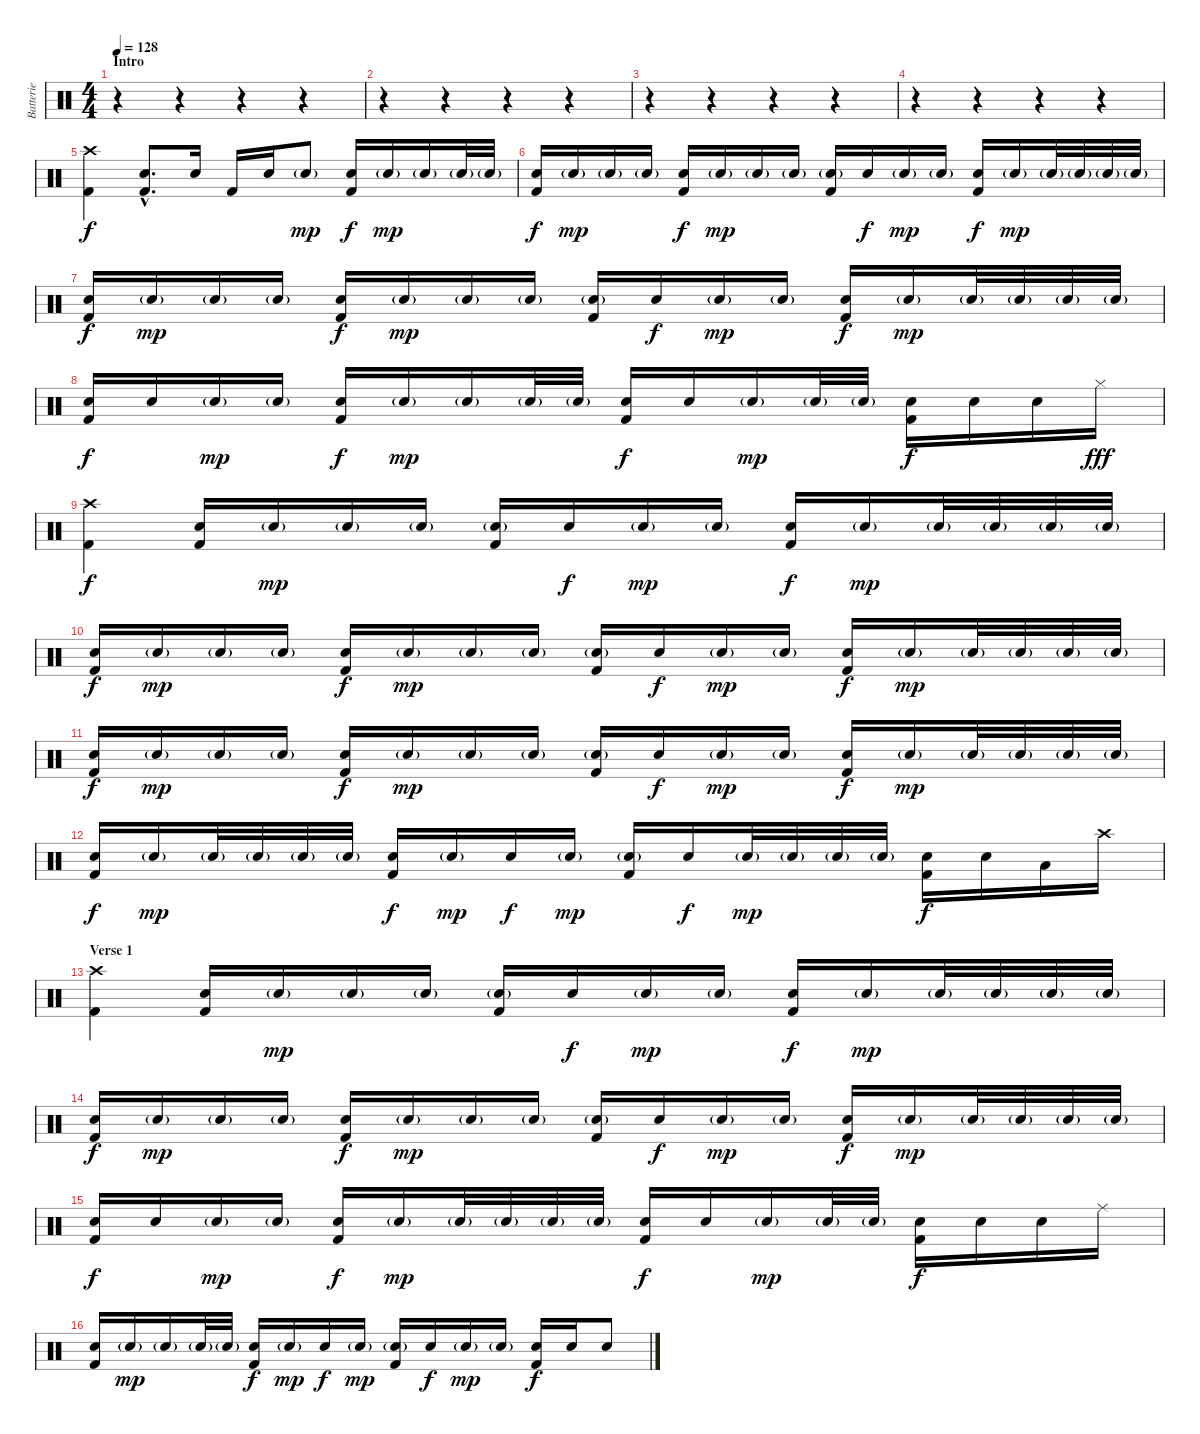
\track ("Batterie" "Batterie") {instrument percussion}
\staff {score}
\articulation defaults
\ts (4 4)
\section ("" "Intro")
\tempo 128
\clef neutral
\ks c
r.4{dy f} r.4 r.4 r.4 |
r.4 r.4 r.4 r.4 |
r.4 r.4 r.4 r.4 |
r.4 r.4 r.4 r.4 |
("Crash high (hit)" "Kick (hit) 2").4 ("Electric Snare (hit)"{hac} "Kick (hit) 2"{hac}).8{d} "Electric Snare (hit)".16 "Kick (hit) 2".16 "Electric Snare (hit)".16 "Electric Snare (hit)"{g}.8{dy mp} ("Electric Snare (hit)" "Kick (hit) 2").16{dy f} "Electric Snare (hit)"{g}.16{dy mp} "Electric Snare (hit)"{g}.16 "Electric Snare (hit)"{g}.32 "Electric Snare (hit)"{g}.32 |
("Electric Snare (hit)" "Kick (hit) 2").16{dy f} "Electric Snare (hit)"{g}.16{dy mp} "Electric Snare (hit)"{g}.16 "Electric Snare (hit)"{g}.16 ("Electric Snare (hit)" "Kick (hit) 2").16{dy f} "Electric Snare (hit)"{g}.16{dy mp} "Electric Snare (hit)"{g}.16 "Electric Snare (hit)"{g}.16 ("Electric Snare (hit)"{g} "Kick (hit) 2").16 "Electric Snare (hit)".16{dy f} "Electric Snare (hit)"{g}.16{dy mp} "Electric Snare (hit)"{g}.16 ("Electric Snare (hit)" "Kick (hit) 2").16{dy f} "Electric Snare (hit)"{g}.16{dy mp} "Electric Snare (hit)"{g}.32 "Electric Snare (hit)"{g}.32 "Electric Snare (hit)"{g}.32 "Electric Snare (hit)"{g}.32 |
("Electric Snare (hit)" "Kick (hit) 2").16{dy f} "Electric Snare (hit)"{g}.16{dy mp} "Electric Snare (hit)"{g}.16 "Electric Snare (hit)"{g}.16 ("Electric Snare (hit)" "Kick (hit) 2").16{dy f} "Electric Snare (hit)"{g}.16{dy mp} "Electric Snare (hit)"{g}.16 "Electric Snare (hit)"{g}.16 ("Electric Snare (hit)"{g} "Kick (hit) 2").16 "Electric Snare (hit)".16{dy f} "Electric Snare (hit)"{g}.16{dy mp} "Electric Snare (hit)"{g}.16 ("Electric Snare (hit)" "Kick (hit) 2").16{dy f} "Electric Snare (hit)"{g}.16{dy mp} "Electric Snare (hit)"{g}.32 "Electric Snare (hit)"{g}.32 "Electric Snare (hit)"{g}.32 "Electric Snare (hit)"{g}.32 |
("Electric Snare (hit)" "Kick (hit) 2").16{dy f} "Electric Snare (hit)".16 "Electric Snare (hit)"{g}.16{dy mp} "Electric Snare (hit)"{g}.16 ("Electric Snare (hit)" "Kick (hit) 2").16{dy f} "Electric Snare (hit)"{g}.16{dy mp} "Electric Snare (hit)"{g}.16 "Electric Snare (hit)"{g}.32 "Electric Snare (hit)"{g}.32 ("Electric Snare (hit)" "Kick (hit) 2").16{dy f} "Electric Snare (hit)".16 "Electric Snare (hit)"{g}.16{dy mp} "Electric Snare (hit)"{g}.32 "Electric Snare (hit)"{g}.32 ("Electric Snare (hit)" "Kick (hit) 2").16{dy f} "Electric Snare (hit)".16 "Electric Snare (hit)".16 "Hi-Hat (closed)".16{dy fff} |
("Crash high (hit)" "Kick (hit) 2").4{dy f} ("Electric Snare (hit)" "Kick (hit) 2").16 "Electric Snare (hit)"{g}.16{dy mp} "Electric Snare (hit)"{g}.16 "Electric Snare (hit)"{g}.16 ("Electric Snare (hit)"{g} "Kick (hit) 2").16 "Electric Snare (hit)".16{dy f} "Electric Snare (hit)"{g}.16{dy mp} "Electric Snare (hit)"{g}.16 ("Electric Snare (hit)" "Kick (hit) 2").16{dy f} "Electric Snare (hit)"{g}.16{dy mp} "Electric Snare (hit)"{g}.32 "Electric Snare (hit)"{g}.32 "Electric Snare (hit)"{g}.32 "Electric Snare (hit)"{g}.32 |
("Electric Snare (hit)" "Kick (hit) 2").16{dy f} "Electric Snare (hit)"{g}.16{dy mp} "Electric Snare (hit)"{g}.16 "Electric Snare (hit)"{g}.16 ("Electric Snare (hit)" "Kick (hit) 2").16{dy f} "Electric Snare (hit)"{g}.16{dy mp} "Electric Snare (hit)"{g}.16 "Electric Snare (hit)"{g}.16 ("Electric Snare (hit)"{g} "Kick (hit) 2").16 "Electric Snare (hit)".16{dy f} "Electric Snare (hit)"{g}.16{dy mp} "Electric Snare (hit)"{g}.16 ("Electric Snare (hit)" "Kick (hit) 2").16{dy f} "Electric Snare (hit)"{g}.16{dy mp} "Electric Snare (hit)"{g}.32 "Electric Snare (hit)"{g}.32 "Electric Snare (hit)"{g}.32 "Electric Snare (hit)"{g}.32 |
("Electric Snare (hit)" "Kick (hit) 2").16{dy f} "Electric Snare (hit)"{g}.16{dy mp} "Electric Snare (hit)"{g}.16 "Electric Snare (hit)"{g}.16 ("Electric Snare (hit)" "Kick (hit) 2").16{dy f} "Electric Snare (hit)"{g}.16{dy mp} "Electric Snare (hit)"{g}.16 "Electric Snare (hit)"{g}.16 ("Electric Snare (hit)"{g} "Kick (hit) 2").16 "Electric Snare (hit)".16{dy f} "Electric Snare (hit)"{g}.16{dy mp} "Electric Snare (hit)"{g}.16 ("Electric Snare (hit)" "Kick (hit) 2").16{dy f} "Electric Snare (hit)"{g}.16{dy mp} "Electric Snare (hit)"{g}.32 "Electric Snare (hit)"{g}.32 "Electric Snare (hit)"{g}.32 "Electric Snare (hit)"{g}.32 |
("Electric Snare (hit)" "Kick (hit) 2").16{dy f} "Electric Snare (hit)"{g}.16{dy mp} "Electric Snare (hit)"{g}.32 "Electric Snare (hit)"{g}.32 "Electric Snare (hit)"{g}.32 "Electric Snare (hit)"{g}.32 ("Electric Snare (hit)" "Kick (hit) 2").16{dy f} "Electric Snare (hit)"{g}.16{dy mp} "Electric Snare (hit)".16{dy f} "Electric Snare (hit)"{g}.16{dy mp} ("Electric Snare (hit)"{g} "Kick (hit) 2").16 "Electric Snare (hit)".16{dy f} "Electric Snare (hit)"{g}.32{dy mp} "Electric Snare (hit)"{g}.32 "Electric Snare (hit)"{g}.32 "Electric Snare (hit)"{g}.32 ("Electric Snare (hit)" "Kick (hit) 2").16{dy f} "Electric Snare (hit)".16 "Low Tom (hit)".16 "Crash high (hit)".16 |
\section ("" "Verse 1")
("Crash high (hit)" "Kick (hit) 2").4 ("Electric Snare (hit)" "Kick (hit) 2").16 "Electric Snare (hit)"{g}.16{dy mp} "Electric Snare (hit)"{g}.16 "Electric Snare (hit)"{g}.16 ("Electric Snare (hit)"{g} "Kick (hit) 2").16 "Electric Snare (hit)".16{dy f} "Electric Snare (hit)"{g}.16{dy mp} "Electric Snare (hit)"{g}.16 ("Electric Snare (hit)" "Kick (hit) 2").16{dy f} "Electric Snare (hit)"{g}.16{dy mp} "Electric Snare (hit)"{g}.32 "Electric Snare (hit)"{g}.32 "Electric Snare (hit)"{g}.32 "Electric Snare (hit)"{g}.32 |
("Electric Snare (hit)" "Kick (hit) 2").16{dy f} "Electric Snare (hit)"{g}.16{dy mp} "Electric Snare (hit)"{g}.16 "Electric Snare (hit)"{g}.16 ("Electric Snare (hit)" "Kick (hit) 2").16{dy f} "Electric Snare (hit)"{g}.16{dy mp} "Electric Snare (hit)"{g}.16 "Electric Snare (hit)"{g}.16 ("Electric Snare (hit)"{g} "Kick (hit) 2").16 "Electric Snare (hit)".16{dy f} "Electric Snare (hit)"{g}.16{dy mp} "Electric Snare (hit)"{g}.16 ("Electric Snare (hit)" "Kick (hit) 2").16{dy f} "Electric Snare (hit)"{g}.16{dy mp} "Electric Snare (hit)"{g}.32 "Electric Snare (hit)"{g}.32 "Electric Snare (hit)"{g}.32 "Electric Snare (hit)"{g}.32 |
("Electric Snare (hit)" "Kick (hit) 2").16{dy f} "Electric Snare (hit)".16 "Electric Snare (hit)"{g}.16{dy mp} "Electric Snare (hit)"{g}.16 ("Electric Snare (hit)" "Kick (hit) 2").16{dy f} "Electric Snare (hit)"{g}.16{dy mp} "Electric Snare (hit)"{g}.32 "Electric Snare (hit)"{g}.32 "Electric Snare (hit)"{g}.32 "Electric Snare (hit)"{g}.32 ("Electric Snare (hit)" "Kick (hit) 2").16{dy f} "Electric Snare (hit)".16 "Electric Snare (hit)"{g}.16{dy mp} "Electric Snare (hit)"{g}.32 "Electric Snare (hit)"{g}.32 ("Electric Snare (hit)" "Kick (hit) 2").16{dy f} "Electric Snare (hit)".16 "Electric Snare (hit)".16 "Ride (middle)".16 |
("Electric Snare (hit)" "Kick (hit) 2").16 "Electric Snare (hit)"{g}.16{dy mp} "Electric Snare (hit)"{g}.16 "Electric Snare (hit)"{g}.32 "Electric Snare (hit)"{g}.32 ("Electric Snare (hit)" "Kick (hit) 2").16{dy f} "Electric Snare (hit)"{g}.16{dy mp} "Electric Snare (hit)".16{dy f} "Electric Snare (hit)"{g}.16{dy mp} ("Electric Snare (hit)"{g} "Kick (hit) 2").16 "Electric Snare (hit)".16{dy f} "Electric Snare (hit)"{g}.16{dy mp} "Electric Snare (hit)"{g}.16 ("Electric Snare (hit)" "Kick (hit) 2").16{dy f} "Electric Snare (hit)".16 "Electric Snare (hit)".8
